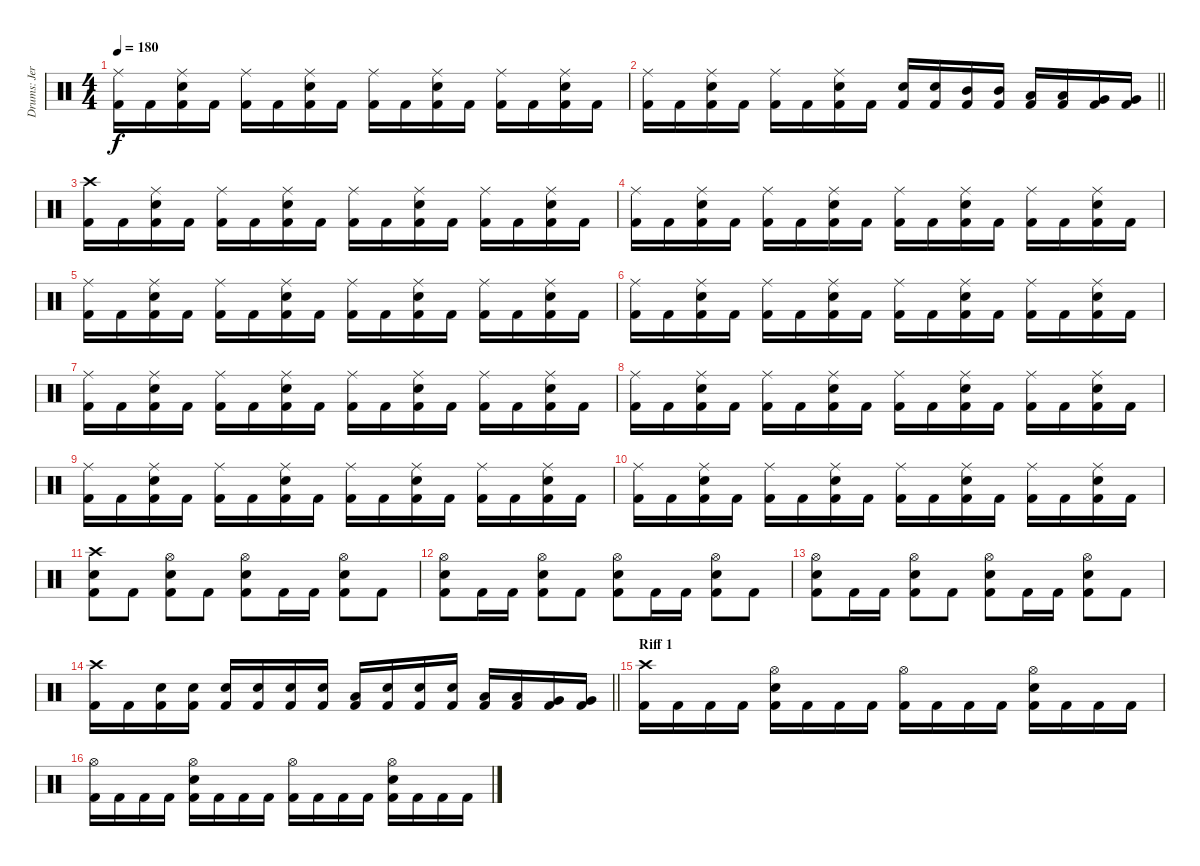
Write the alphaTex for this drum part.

\track ("Drums: Jere Luokkamäki" "Drums: Jer") {instrument percussion}
\staff {score}
\articulation defaults
\ts (4 4)
\tempo 180
\clef neutral
\ks aminor
("Ride (middle)" "Kick (hit) 2").16{dy f} "Kick (hit) 2".16 ("Ride (middle)" "Electric Snare (hit)" "Kick (hit) 2").16 "Kick (hit) 2".16 ("Ride (middle)" "Kick (hit) 2").16 "Kick (hit) 2".16 ("Ride (middle)" "Electric Snare (hit)" "Kick (hit) 2").16 "Kick (hit) 2".16 ("Ride (middle)" "Kick (hit) 2").16 "Kick (hit) 2".16 ("Ride (middle)" "Electric Snare (hit)" "Kick (hit) 2").16 "Kick (hit) 2".16 ("Ride (middle)" "Kick (hit) 2").16 "Kick (hit) 2".16 ("Ride (middle)" "Electric Snare (hit)" "Kick (hit) 2").16 "Kick (hit) 2".16 |
\barLineRight lightlight
("Ride (middle)" "Kick (hit) 2").16 "Kick (hit) 2".16 ("Ride (middle)" "Electric Snare (hit)" "Kick (hit) 2").16 "Kick (hit) 2".16 ("Ride (middle)" "Kick (hit) 2").16 "Kick (hit) 2".16 ("Ride (middle)" "Electric Snare (hit)" "Kick (hit) 2").16 "Kick (hit) 2".16 ("Electric Snare (hit)" "Kick (hit) 2").16 ("Electric Snare (hit)" "Kick (hit) 2").16 ("Mid Tom (hit)" "Kick (hit) 2").16 ("Mid Tom (hit)" "Kick (hit) 2").16 ("Low Tom (hit)" "Kick (hit) 2").16 ("Low Tom (hit)" "Kick (hit) 2").16 ("Very Low Tom (hit)" "Kick (hit) 2").16 ("Very Low Tom (hit)" "Kick (hit) 2").16 |
("Crash high (hit)" "Kick (hit) 2").16 "Kick (hit) 2".16 ("Ride (middle)" "Electric Snare (hit)" "Kick (hit) 2").16 "Kick (hit) 2".16 ("Ride (middle)" "Kick (hit) 2").16 "Kick (hit) 2".16 ("Ride (middle)" "Electric Snare (hit)" "Kick (hit) 2").16 "Kick (hit) 2".16 ("Ride (middle)" "Kick (hit) 2").16 "Kick (hit) 2".16 ("Ride (middle)" "Electric Snare (hit)" "Kick (hit) 2").16 "Kick (hit) 2".16 ("Ride (middle)" "Kick (hit) 2").16 "Kick (hit) 2".16 ("Ride (middle)" "Electric Snare (hit)" "Kick (hit) 2").16 "Kick (hit) 2".16 |
("Ride (middle)" "Kick (hit) 2").16 "Kick (hit) 2".16 ("Ride (middle)" "Electric Snare (hit)" "Kick (hit) 2").16 "Kick (hit) 2".16 ("Ride (middle)" "Kick (hit) 2").16 "Kick (hit) 2".16 ("Ride (middle)" "Electric Snare (hit)" "Kick (hit) 2").16 "Kick (hit) 2".16 ("Ride (middle)" "Kick (hit) 2").16 "Kick (hit) 2".16 ("Ride (middle)" "Electric Snare (hit)" "Kick (hit) 2").16 "Kick (hit) 2".16 ("Ride (middle)" "Kick (hit) 2").16 "Kick (hit) 2".16 ("Ride (middle)" "Electric Snare (hit)" "Kick (hit) 2").16 "Kick (hit) 2".16 |
("Ride (middle)" "Kick (hit) 2").16 "Kick (hit) 2".16 ("Ride (middle)" "Electric Snare (hit)" "Kick (hit) 2").16 "Kick (hit) 2".16 ("Ride (middle)" "Kick (hit) 2").16 "Kick (hit) 2".16 ("Ride (middle)" "Electric Snare (hit)" "Kick (hit) 2").16 "Kick (hit) 2".16 ("Ride (middle)" "Kick (hit) 2").16 "Kick (hit) 2".16 ("Ride (middle)" "Electric Snare (hit)" "Kick (hit) 2").16 "Kick (hit) 2".16 ("Ride (middle)" "Kick (hit) 2").16 "Kick (hit) 2".16 ("Ride (middle)" "Electric Snare (hit)" "Kick (hit) 2").16 "Kick (hit) 2".16 |
("Ride (middle)" "Kick (hit) 2").16 "Kick (hit) 2".16 ("Ride (middle)" "Electric Snare (hit)" "Kick (hit) 2").16 "Kick (hit) 2".16 ("Ride (middle)" "Kick (hit) 2").16 "Kick (hit) 2".16 ("Ride (middle)" "Electric Snare (hit)" "Kick (hit) 2").16 "Kick (hit) 2".16 ("Ride (middle)" "Kick (hit) 2").16 "Kick (hit) 2".16 ("Ride (middle)" "Electric Snare (hit)" "Kick (hit) 2").16 "Kick (hit) 2".16 ("Ride (middle)" "Kick (hit) 2").16 "Kick (hit) 2".16 ("Ride (middle)" "Electric Snare (hit)" "Kick (hit) 2").16 "Kick (hit) 2".16 |
("Ride (middle)" "Kick (hit) 2").16 "Kick (hit) 2".16 ("Ride (middle)" "Electric Snare (hit)" "Kick (hit) 2").16 "Kick (hit) 2".16 ("Ride (middle)" "Kick (hit) 2").16 "Kick (hit) 2".16 ("Ride (middle)" "Electric Snare (hit)" "Kick (hit) 2").16 "Kick (hit) 2".16 ("Ride (middle)" "Kick (hit) 2").16 "Kick (hit) 2".16 ("Ride (middle)" "Electric Snare (hit)" "Kick (hit) 2").16 "Kick (hit) 2".16 ("Ride (middle)" "Kick (hit) 2").16 "Kick (hit) 2".16 ("Ride (middle)" "Electric Snare (hit)" "Kick (hit) 2").16 "Kick (hit) 2".16 |
("Ride (middle)" "Kick (hit) 2").16 "Kick (hit) 2".16 ("Ride (middle)" "Electric Snare (hit)" "Kick (hit) 2").16 "Kick (hit) 2".16 ("Ride (middle)" "Kick (hit) 2").16 "Kick (hit) 2".16 ("Ride (middle)" "Electric Snare (hit)" "Kick (hit) 2").16 "Kick (hit) 2".16 ("Ride (middle)" "Kick (hit) 2").16 "Kick (hit) 2".16 ("Ride (middle)" "Electric Snare (hit)" "Kick (hit) 2").16 "Kick (hit) 2".16 ("Ride (middle)" "Kick (hit) 2").16 "Kick (hit) 2".16 ("Ride (middle)" "Electric Snare (hit)" "Kick (hit) 2").16 "Kick (hit) 2".16 |
("Ride (middle)" "Kick (hit) 2").16 "Kick (hit) 2".16 ("Ride (middle)" "Electric Snare (hit)" "Kick (hit) 2").16 "Kick (hit) 2".16 ("Ride (middle)" "Kick (hit) 2").16 "Kick (hit) 2".16 ("Ride (middle)" "Electric Snare (hit)" "Kick (hit) 2").16 "Kick (hit) 2".16 ("Ride (middle)" "Kick (hit) 2").16 "Kick (hit) 2".16 ("Ride (middle)" "Electric Snare (hit)" "Kick (hit) 2").16 "Kick (hit) 2".16 ("Ride (middle)" "Kick (hit) 2").16 "Kick (hit) 2".16 ("Ride (middle)" "Electric Snare (hit)" "Kick (hit) 2").16 "Kick (hit) 2".16 |
("Ride (middle)" "Kick (hit) 2").16 "Kick (hit) 2".16 ("Ride (middle)" "Electric Snare (hit)" "Kick (hit) 2").16 "Kick (hit) 2".16 ("Ride (middle)" "Kick (hit) 2").16 "Kick (hit) 2".16 ("Ride (middle)" "Electric Snare (hit)" "Kick (hit) 2").16 "Kick (hit) 2".16 ("Ride (middle)" "Kick (hit) 2").16 "Kick (hit) 2".16 ("Ride (middle)" "Electric Snare (hit)" "Kick (hit) 2").16 "Kick (hit) 2".16 ("Ride (middle)" "Kick (hit) 2").16 "Kick (hit) 2".16 ("Ride (middle)" "Electric Snare (hit)" "Kick (hit) 2").16 "Kick (hit) 2".16 |
("Crash high (hit)" "Electric Snare (hit)" "Kick (hit) 2").8 "Kick (hit) 2".8 ("Hi-Hat (open)" "Electric Snare (hit)" "Kick (hit) 2").8 "Kick (hit) 2".8 ("Hi-Hat (open)" "Electric Snare (hit)" "Kick (hit) 2").8 "Kick (hit) 2".16 "Kick (hit) 2".16 ("Hi-Hat (open)" "Electric Snare (hit)" "Kick (hit) 2").8 "Kick (hit) 2".8 |
("Hi-Hat (open)" "Electric Snare (hit)" "Kick (hit) 2").8 "Kick (hit) 2".16 "Kick (hit) 2".16 ("Hi-Hat (open)" "Electric Snare (hit)" "Kick (hit) 2").8 "Kick (hit) 2".8 ("Hi-Hat (open)" "Electric Snare (hit)" "Kick (hit) 2").8 "Kick (hit) 2".16 "Kick (hit) 2".16 ("Hi-Hat (open)" "Electric Snare (hit)" "Kick (hit) 2").8 "Kick (hit) 2".8 |
("Hi-Hat (open)" "Electric Snare (hit)" "Kick (hit) 2").8 "Kick (hit) 2".16 "Kick (hit) 2".16 ("Hi-Hat (open)" "Electric Snare (hit)" "Kick (hit) 2").8 "Kick (hit) 2".8 ("Hi-Hat (open)" "Electric Snare (hit)" "Kick (hit) 2").8 "Kick (hit) 2".16 "Kick (hit) 2".16 ("Hi-Hat (open)" "Electric Snare (hit)" "Kick (hit) 2").8 "Kick (hit) 2".8 |
\barLineRight lightlight
("Crash high (hit)" "Kick (hit) 2").16 "Kick (hit) 2".16 ("Electric Snare (hit)" "Kick (hit) 2").16 ("Electric Snare (hit)" "Kick (hit) 2").16 ("Electric Snare (hit)" "Kick (hit) 2").16 ("Electric Snare (hit)" "Kick (hit) 2").16 ("Electric Snare (hit)" "Kick (hit) 2").16 ("Electric Snare (hit)" "Kick (hit) 2").16 ("Low Tom (hit)" "Kick (hit) 2").16 ("Electric Snare (hit)" "Kick (hit) 2").16 ("Electric Snare (hit)" "Kick (hit) 2").16 ("Electric Snare (hit)" "Kick (hit) 2").16 ("Low Tom (hit)" "Kick (hit) 2").16 ("Low Tom (hit)" "Kick (hit) 2").16 ("Very Low Tom (hit)" "Kick (hit) 2").16 ("Very Low Tom (hit)" "Kick (hit) 2").16 |
\section ("" "Riff 1")
("Crash high (hit)" "Kick (hit) 2").16 "Kick (hit) 2".16 "Kick (hit) 2".16 "Kick (hit) 2".16 ("Hi-Hat (open)" "Electric Snare (hit)" "Kick (hit) 2").16 "Kick (hit) 2".16 "Kick (hit) 2".16 "Kick (hit) 2".16 ("Hi-Hat (open)" "Kick (hit) 2").16 "Kick (hit) 2".16 "Kick (hit) 2".16 "Kick (hit) 2".16 ("Hi-Hat (open)" "Electric Snare (hit)" "Kick (hit) 2").16 "Kick (hit) 2".16 "Kick (hit) 2".16 "Kick (hit) 2".16 |
("Hi-Hat (open)" "Kick (hit) 2").16 "Kick (hit) 2".16 "Kick (hit) 2".16 "Kick (hit) 2".16 ("Hi-Hat (open)" "Electric Snare (hit)" "Kick (hit) 2").16 "Kick (hit) 2".16 "Kick (hit) 2".16 "Kick (hit) 2".16 ("Hi-Hat (open)" "Kick (hit) 2").16 "Kick (hit) 2".16 "Kick (hit) 2".16 "Kick (hit) 2".16 ("Hi-Hat (open)" "Electric Snare (hit)" "Kick (hit) 2").16 "Kick (hit) 2".16 "Kick (hit) 2".16 "Kick (hit) 2".16
